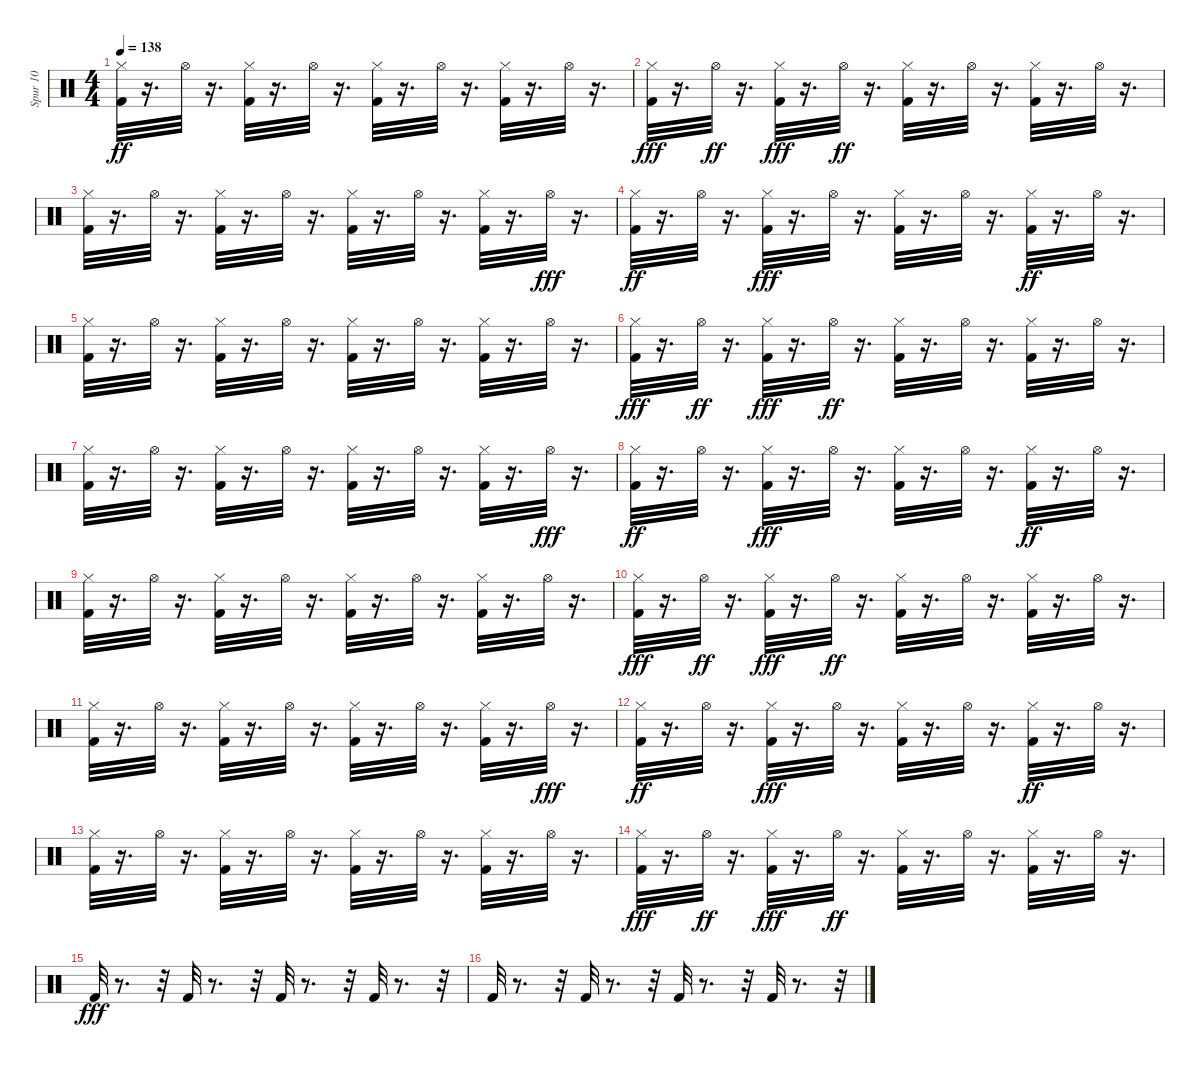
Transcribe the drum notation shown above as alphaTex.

\track ("Spur 10" "Spur 10") {instrument percussion}
\staff {score}
\articulation defaults
\ts (4 4)
\tempo 138
\clef neutral
\ks c
("Kick (hit) 2" "Hi-Hat (closed)").32{dy ff} r.16{d} "Hi-Hat (open)".32 r.16{d} ("Kick (hit) 2" "Hi-Hat (closed)").32 r.16{d} "Hi-Hat (open)".32 r.16{d} ("Kick (hit) 2" "Hi-Hat (closed)").32 r.16{d} "Hi-Hat (open)".32 r.16{d} ("Kick (hit) 2" "Hi-Hat (closed)").32 r.16{d} "Hi-Hat (open)".32 r.16{d} |
("Kick (hit) 2" "Hi-Hat (closed)").32{dy fff} r.16{d} "Hi-Hat (open)".32{dy ff} r.16{d} ("Kick (hit) 2" "Hi-Hat (closed)").32{dy fff} r.16{d} "Hi-Hat (open)".32{dy ff} r.16{d} ("Kick (hit) 2" "Hi-Hat (closed)").32 r.16{d} "Hi-Hat (open)".32 r.16{d} ("Kick (hit) 2" "Hi-Hat (closed)").32 r.16{d} "Hi-Hat (open)".32 r.16{d} |
("Kick (hit) 2" "Hi-Hat (closed)").32 r.16{d} "Hi-Hat (open)".32 r.16{d} ("Kick (hit) 2" "Hi-Hat (closed)").32 r.16{d} "Hi-Hat (open)".32 r.16{d} ("Kick (hit) 2" "Hi-Hat (closed)").32 r.16{d} "Hi-Hat (open)".32 r.16{d} ("Kick (hit) 2" "Hi-Hat (closed)").32 r.16{d} "Hi-Hat (open)".32{dy fff} r.16{d} |
("Kick (hit) 2" "Hi-Hat (closed)").32{dy ff} r.16{d} "Hi-Hat (open)".32 r.16{d} ("Kick (hit) 2" "Hi-Hat (closed)").32{dy fff} r.16{d} "Hi-Hat (open)".32 r.16{d} ("Kick (hit) 2" "Hi-Hat (closed)").32 r.16{d} "Hi-Hat (open)".32 r.16{d} ("Kick (hit) 2" "Hi-Hat (closed)").32{dy ff} r.16{d} "Hi-Hat (open)".32 r.16{d} |
("Kick (hit) 2" "Hi-Hat (closed)").32 r.16{d} "Hi-Hat (open)".32 r.16{d} ("Kick (hit) 2" "Hi-Hat (closed)").32 r.16{d} "Hi-Hat (open)".32 r.16{d} ("Kick (hit) 2" "Hi-Hat (closed)").32 r.16{d} "Hi-Hat (open)".32 r.16{d} ("Kick (hit) 2" "Hi-Hat (closed)").32 r.16{d} "Hi-Hat (open)".32 r.16{d} |
("Kick (hit) 2" "Hi-Hat (closed)").32{dy fff} r.16{d} "Hi-Hat (open)".32{dy ff} r.16{d} ("Kick (hit) 2" "Hi-Hat (closed)").32{dy fff} r.16{d} "Hi-Hat (open)".32{dy ff} r.16{d} ("Kick (hit) 2" "Hi-Hat (closed)").32 r.16{d} "Hi-Hat (open)".32 r.16{d} ("Kick (hit) 2" "Hi-Hat (closed)").32 r.16{d} "Hi-Hat (open)".32 r.16{d} |
("Kick (hit) 2" "Hi-Hat (closed)").32 r.16{d} "Hi-Hat (open)".32 r.16{d} ("Kick (hit) 2" "Hi-Hat (closed)").32 r.16{d} "Hi-Hat (open)".32 r.16{d} ("Kick (hit) 2" "Hi-Hat (closed)").32 r.16{d} "Hi-Hat (open)".32 r.16{d} ("Kick (hit) 2" "Hi-Hat (closed)").32 r.16{d} "Hi-Hat (open)".32{dy fff} r.16{d} |
("Kick (hit) 2" "Hi-Hat (closed)").32{dy ff} r.16{d} "Hi-Hat (open)".32 r.16{d} ("Kick (hit) 2" "Hi-Hat (closed)").32{dy fff} r.16{d} "Hi-Hat (open)".32 r.16{d} ("Kick (hit) 2" "Hi-Hat (closed)").32 r.16{d} "Hi-Hat (open)".32 r.16{d} ("Kick (hit) 2" "Hi-Hat (closed)").32{dy ff} r.16{d} "Hi-Hat (open)".32 r.16{d} |
("Kick (hit) 2" "Hi-Hat (closed)").32 r.16{d} "Hi-Hat (open)".32 r.16{d} ("Kick (hit) 2" "Hi-Hat (closed)").32 r.16{d} "Hi-Hat (open)".32 r.16{d} ("Kick (hit) 2" "Hi-Hat (closed)").32 r.16{d} "Hi-Hat (open)".32 r.16{d} ("Kick (hit) 2" "Hi-Hat (closed)").32 r.16{d} "Hi-Hat (open)".32 r.16{d} |
("Kick (hit) 2" "Hi-Hat (closed)").32{dy fff} r.16{d} "Hi-Hat (open)".32{dy ff} r.16{d} ("Kick (hit) 2" "Hi-Hat (closed)").32{dy fff} r.16{d} "Hi-Hat (open)".32{dy ff} r.16{d} ("Kick (hit) 2" "Hi-Hat (closed)").32 r.16{d} "Hi-Hat (open)".32 r.16{d} ("Kick (hit) 2" "Hi-Hat (closed)").32 r.16{d} "Hi-Hat (open)".32 r.16{d} |
("Kick (hit) 2" "Hi-Hat (closed)").32 r.16{d} "Hi-Hat (open)".32 r.16{d} ("Kick (hit) 2" "Hi-Hat (closed)").32 r.16{d} "Hi-Hat (open)".32 r.16{d} ("Kick (hit) 2" "Hi-Hat (closed)").32 r.16{d} "Hi-Hat (open)".32 r.16{d} ("Kick (hit) 2" "Hi-Hat (closed)").32 r.16{d} "Hi-Hat (open)".32{dy fff} r.16{d} |
("Kick (hit) 2" "Hi-Hat (closed)").32{dy ff} r.16{d} "Hi-Hat (open)".32 r.16{d} ("Kick (hit) 2" "Hi-Hat (closed)").32{dy fff} r.16{d} "Hi-Hat (open)".32 r.16{d} ("Kick (hit) 2" "Hi-Hat (closed)").32 r.16{d} "Hi-Hat (open)".32 r.16{d} ("Kick (hit) 2" "Hi-Hat (closed)").32{dy ff} r.16{d} "Hi-Hat (open)".32 r.16{d} |
("Kick (hit) 2" "Hi-Hat (closed)").32 r.16{d} "Hi-Hat (open)".32 r.16{d} ("Kick (hit) 2" "Hi-Hat (closed)").32 r.16{d} "Hi-Hat (open)".32 r.16{d} ("Kick (hit) 2" "Hi-Hat (closed)").32 r.16{d} "Hi-Hat (open)".32 r.16{d} ("Kick (hit) 2" "Hi-Hat (closed)").32 r.16{d} "Hi-Hat (open)".32 r.16{d} |
("Kick (hit) 2" "Hi-Hat (closed)").32{dy fff} r.16{d} "Hi-Hat (open)".32{dy ff} r.16{d} ("Kick (hit) 2" "Hi-Hat (closed)").32{dy fff} r.16{d} "Hi-Hat (open)".32{dy ff} r.16{d} ("Kick (hit) 2" "Hi-Hat (closed)").32 r.16{d} "Hi-Hat (open)".32 r.16{d} ("Kick (hit) 2" "Hi-Hat (closed)").32 r.16{d} "Hi-Hat (open)".32 r.16{d} |
"Kick (hit) 2".32{dy fff} r.8{d} r.32 "Kick (hit) 2".32 r.8{d} r.32 "Kick (hit) 2".32 r.8{d} r.32 "Kick (hit) 2".32 r.8{d} r.32 |
"Kick (hit) 2".32 r.8{d} r.32 "Kick (hit) 2".32 r.8{d} r.32 "Kick (hit) 2".32 r.8{d} r.32 "Kick (hit) 2".32 r.8{d} r.32
